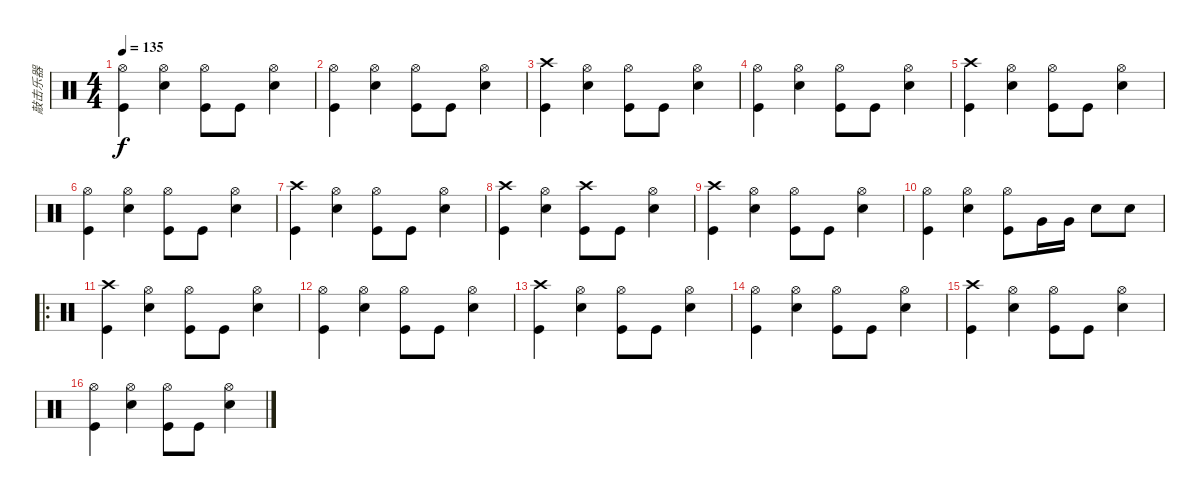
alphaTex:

\track ("敲击乐器" "敲击乐器") {instrument percussion}
\staff {score}
\articulation defaults
\ts (4 4)
\tempo 135
\clef neutral
\ks c
("Hi-Hat (open)" "Kick (hit)").4{dy f} ("Hi-Hat (open)" "Electric Snare (hit)").4 ("Hi-Hat (open)" "Kick (hit)").8 "Kick (hit)".8 ("Hi-Hat (open)" "Electric Snare (hit)").4 |
("Hi-Hat (open)" "Kick (hit)").4 ("Hi-Hat (open)" "Electric Snare (hit)").4 ("Hi-Hat (open)" "Kick (hit)").8 "Kick (hit)".8 ("Hi-Hat (open)" "Electric Snare (hit)").4 |
("Crash high (hit)" "Kick (hit)").4 ("Hi-Hat (open)" "Electric Snare (hit)").4 ("Hi-Hat (open)" "Kick (hit)").8 "Kick (hit)".8 ("Hi-Hat (open)" "Electric Snare (hit)").4 |
("Hi-Hat (open)" "Kick (hit)").4 ("Hi-Hat (open)" "Electric Snare (hit)").4 ("Hi-Hat (open)" "Kick (hit)").8 "Kick (hit)".8 ("Hi-Hat (open)" "Electric Snare (hit)").4 |
("Crash high (hit)" "Kick (hit)").4 ("Hi-Hat (open)" "Electric Snare (hit)").4 ("Hi-Hat (open)" "Kick (hit)").8 "Kick (hit)".8 ("Hi-Hat (open)" "Electric Snare (hit)").4 |
("Hi-Hat (open)" "Kick (hit)").4 ("Hi-Hat (open)" "Electric Snare (hit)").4 ("Hi-Hat (open)" "Kick (hit)").8 "Kick (hit)".8 ("Hi-Hat (open)" "Electric Snare (hit)").4 |
("Crash high (hit)" "Kick (hit)").4 ("Hi-Hat (open)" "Electric Snare (hit)").4 ("Hi-Hat (open)" "Kick (hit)").8 "Kick (hit)".8 ("Hi-Hat (open)" "Electric Snare (hit)").4 |
("Crash high (hit)" "Kick (hit)").4 ("Hi-Hat (open)" "Electric Snare (hit)").4 ("Crash high (hit)" "Kick (hit)").8 "Kick (hit)".8 ("Hi-Hat (open)" "Electric Snare (hit)").4 |
("Crash high (hit)" "Kick (hit)").4 ("Hi-Hat (open)" "Electric Snare (hit)").4 ("Hi-Hat (open)" "Kick (hit)").8 "Kick (hit)".8 ("Hi-Hat (open)" "Electric Snare (hit)").4 |
("Hi-Hat (open)" "Kick (hit)").4 ("Hi-Hat (open)" "Electric Snare (hit)").4 ("Hi-Hat (open)" "Kick (hit)").8 "Very Low Tom (hit)".16 "Very Low Tom (hit)".16 "Electric Snare (hit)".8 "Electric Snare (hit)".8 |
\ro
("Crash high (hit)" "Kick (hit)").4 ("Hi-Hat (open)" "Electric Snare (hit)").4 ("Hi-Hat (open)" "Kick (hit)").8 "Kick (hit)".8 ("Hi-Hat (open)" "Electric Snare (hit)").4 |
("Hi-Hat (open)" "Kick (hit)").4 ("Hi-Hat (open)" "Electric Snare (hit)").4 ("Hi-Hat (open)" "Kick (hit)").8 "Kick (hit)".8 ("Hi-Hat (open)" "Electric Snare (hit)").4 |
("Crash high (hit)" "Kick (hit)").4 ("Hi-Hat (open)" "Electric Snare (hit)").4 ("Hi-Hat (open)" "Kick (hit)").8 "Kick (hit)".8 ("Hi-Hat (open)" "Electric Snare (hit)").4 |
("Hi-Hat (open)" "Kick (hit)").4 ("Hi-Hat (open)" "Electric Snare (hit)").4 ("Hi-Hat (open)" "Kick (hit)").8 "Kick (hit)".8 ("Hi-Hat (open)" "Electric Snare (hit)").4 |
("Crash high (hit)" "Kick (hit)").4 ("Hi-Hat (open)" "Electric Snare (hit)").4 ("Hi-Hat (open)" "Kick (hit)").8 "Kick (hit)".8 ("Hi-Hat (open)" "Electric Snare (hit)").4 |
("Hi-Hat (open)" "Kick (hit)").4 ("Hi-Hat (open)" "Electric Snare (hit)").4 ("Hi-Hat (open)" "Kick (hit)").8 "Kick (hit)".8 ("Hi-Hat (open)" "Electric Snare (hit)").4
